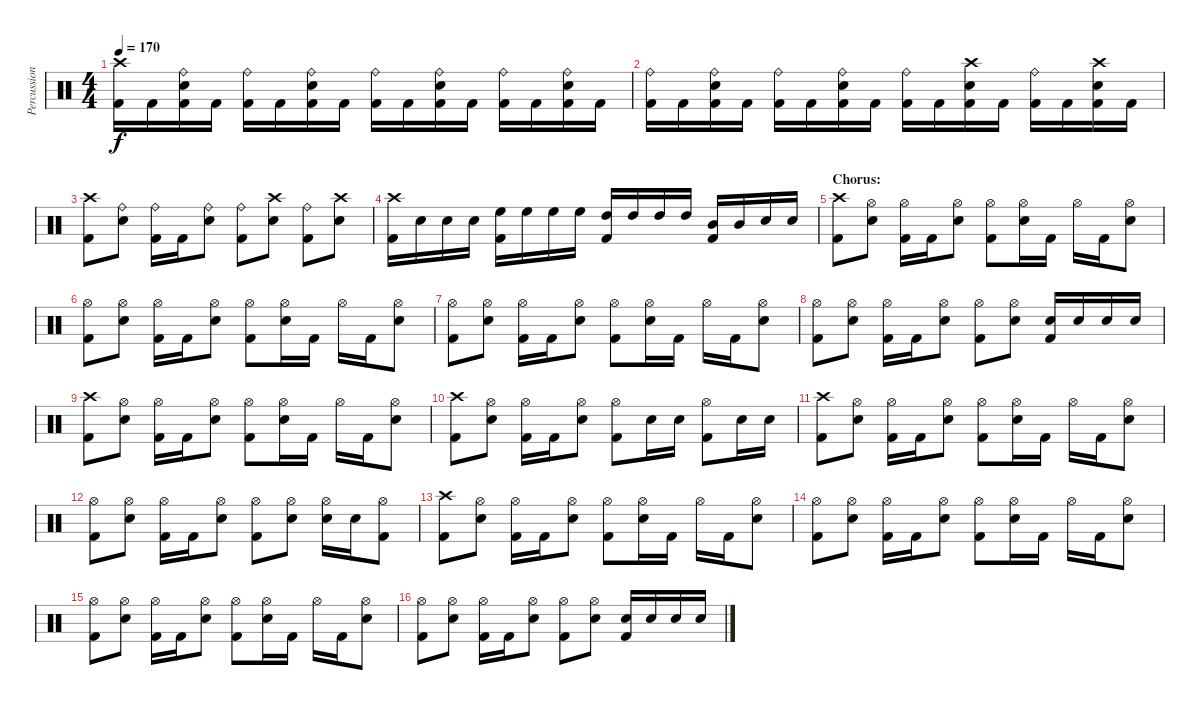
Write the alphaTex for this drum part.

\track ("Percussion" "Percussion") {instrument percussion}
\staff {score}
\articulation defaults
\ts (4 4)
\tempo 170
\clef neutral
\ks c
("Crash high (hit)" "Kick (hit) 2").16{dy f} "Kick (hit) 2".16 ("Ride (bell)" "Electric Snare (hit)" "Kick (hit) 2").16 "Kick (hit) 2".16 ("Ride (bell)" "Kick (hit) 2").16 "Kick (hit) 2".16 ("Ride (bell)" "Electric Snare (hit)" "Kick (hit) 2").16 "Kick (hit) 2".16 ("Ride (bell)" "Kick (hit) 2").16 "Kick (hit) 2".16 ("Ride (bell)" "Electric Snare (hit)" "Kick (hit) 2").16 "Kick (hit) 2".16 ("Ride (bell)" "Kick (hit) 2").16 "Kick (hit) 2".16 ("Ride (bell)" "Electric Snare (hit)" "Kick (hit) 2").16 "Kick (hit) 2".16 |
("Ride (bell)" "Kick (hit) 2").16 "Kick (hit) 2".16 ("Ride (bell)" "Electric Snare (hit)" "Kick (hit) 2").16 "Kick (hit) 2".16 ("Ride (bell)" "Kick (hit) 2").16 "Kick (hit) 2".16 ("Ride (bell)" "Electric Snare (hit)" "Kick (hit) 2").16 "Kick (hit) 2".16 ("Ride (bell)" "Kick (hit) 2").16 "Kick (hit) 2".16 ("Crash high (hit)" "Electric Snare (hit)" "Kick (hit) 2").16 "Kick (hit) 2".16 ("Ride (bell)" "Kick (hit) 2").16 "Kick (hit) 2".16 ("Crash high (hit)" "Electric Snare (hit)" "Kick (hit) 2").16 "Kick (hit) 2".16 |
("Crash high (hit)" "Kick (hit) 2").8 ("Ride (bell)" "Electric Snare (hit)").8 ("Ride (bell)" "Kick (hit) 2").16 "Kick (hit) 2".16 ("Ride (bell)" "Electric Snare (hit)").8 ("Ride (bell)" "Kick (hit) 2").8 ("Crash high (hit)" "Electric Snare (hit)").8 ("Ride (bell)" "Kick (hit) 2").8 ("Crash high (hit)" "Electric Snare (hit)").8 |
("Crash high (hit)" "Kick (hit) 2").16 "Electric Snare (hit)".16 "Electric Snare (hit)".16 "Electric Snare (hit)".16 ("High Floor Tom (hit)" "Kick (hit) 2").16 "High Floor Tom (hit)".16 "High Floor Tom (hit)".16 "High Floor Tom (hit)".16 ("High Tom (hit)" "Kick (hit) 2").16 "High Tom (hit)".16 "High Tom (hit)".16 "High Tom (hit)".16 ("Mid Tom (hit)" "Kick (hit) 2").16 "Mid Tom (hit)".16 "Electric Snare (hit)".16 "Electric Snare (hit)".16 |
\section ("" "Chorus:")
("Crash high (hit)" "Kick (hit) 2").8 ("Hi-Hat (open)" "Electric Snare (hit)").8 ("Hi-Hat (open)" "Kick (hit) 2").16 "Kick (hit) 2".16 ("Hi-Hat (open)" "Electric Snare (hit)").8 ("Hi-Hat (open)" "Kick (hit) 2").8 ("Hi-Hat (open)" "Electric Snare (hit)").16 "Kick (hit) 2".16 "Hi-Hat (open)".16 "Kick (hit) 2".16 ("Hi-Hat (open)" "Electric Snare (hit)").8 |
("Hi-Hat (open)" "Kick (hit) 2").8 ("Hi-Hat (open)" "Electric Snare (hit)").8 ("Hi-Hat (open)" "Kick (hit) 2").16 "Kick (hit) 2".16 ("Hi-Hat (open)" "Electric Snare (hit)").8 ("Hi-Hat (open)" "Kick (hit) 2").8 ("Hi-Hat (open)" "Electric Snare (hit)").16 "Kick (hit) 2".16 "Hi-Hat (open)".16 "Kick (hit) 2".16 ("Hi-Hat (open)" "Electric Snare (hit)").8 |
("Hi-Hat (open)" "Kick (hit) 2").8 ("Hi-Hat (open)" "Electric Snare (hit)").8 ("Hi-Hat (open)" "Kick (hit) 2").16 "Kick (hit) 2".16 ("Hi-Hat (open)" "Electric Snare (hit)").8 ("Hi-Hat (open)" "Kick (hit) 2").8 ("Hi-Hat (open)" "Electric Snare (hit)").16 "Kick (hit) 2".16 "Hi-Hat (open)".16 "Kick (hit) 2".16 ("Hi-Hat (open)" "Electric Snare (hit)").8 |
("Hi-Hat (open)" "Kick (hit) 2").8 ("Hi-Hat (open)" "Electric Snare (hit)").8 ("Hi-Hat (open)" "Kick (hit) 2").16 "Kick (hit) 2".16 ("Hi-Hat (open)" "Electric Snare (hit)").8 ("Hi-Hat (open)" "Kick (hit) 2").8 ("Hi-Hat (open)" "Electric Snare (hit)").8 ("Electric Snare (hit)" "Kick (hit) 2").16 "Electric Snare (hit)".16 "Electric Snare (hit)".16 "Electric Snare (hit)".16 |
("Crash high (hit)" "Kick (hit) 2").8 ("Hi-Hat (open)" "Electric Snare (hit)").8 ("Hi-Hat (open)" "Kick (hit) 2").16 "Kick (hit) 2".16 ("Hi-Hat (open)" "Electric Snare (hit)").8 ("Hi-Hat (open)" "Kick (hit) 2").8 ("Hi-Hat (open)" "Electric Snare (hit)").16 "Kick (hit) 2".16 "Hi-Hat (open)".16 "Kick (hit) 2".16 ("Hi-Hat (open)" "Electric Snare (hit)").8 |
("Crash high (hit)" "Kick (hit) 2").8 ("Hi-Hat (open)" "Electric Snare (hit)").8 ("Hi-Hat (open)" "Kick (hit) 2").16 "Kick (hit) 2".16 ("Hi-Hat (open)" "Electric Snare (hit)").8 ("Hi-Hat (open)" "Kick (hit) 2").8 "Electric Snare (hit)".16 "Electric Snare (hit)".16 ("Hi-Hat (open)" "Kick (hit) 2").8 "Electric Snare (hit)".16 "Electric Snare (hit)".16 |
("Crash high (hit)" "Kick (hit) 2").8 ("Hi-Hat (open)" "Electric Snare (hit)").8 ("Hi-Hat (open)" "Kick (hit) 2").16 "Kick (hit) 2".16 ("Hi-Hat (open)" "Electric Snare (hit)").8 ("Hi-Hat (open)" "Kick (hit) 2").8 ("Hi-Hat (open)" "Electric Snare (hit)").16 "Kick (hit) 2".16 "Hi-Hat (open)".16 "Kick (hit) 2".16 ("Hi-Hat (open)" "Electric Snare (hit)").8 |
("Hi-Hat (open)" "Kick (hit) 2").8 ("Hi-Hat (open)" "Electric Snare (hit)").8 ("Hi-Hat (open)" "Kick (hit) 2").16 "Kick (hit) 2".16 ("Hi-Hat (open)" "Electric Snare (hit)").8 ("Hi-Hat (open)" "Kick (hit) 2").8 ("Hi-Hat (open)" "Electric Snare (hit)").8 ("Hi-Hat (open)" "Electric Snare (hit)").16 "Electric Snare (hit)".16 ("Hi-Hat (open)" "Kick (hit) 2").8 |
("Crash high (hit)" "Kick (hit) 2").8 ("Hi-Hat (open)" "Electric Snare (hit)").8 ("Hi-Hat (open)" "Kick (hit) 2").16 "Kick (hit) 2".16 ("Hi-Hat (open)" "Electric Snare (hit)").8 ("Hi-Hat (open)" "Kick (hit) 2").8 ("Hi-Hat (open)" "Electric Snare (hit)").16 "Kick (hit) 2".16 "Hi-Hat (open)".16 "Kick (hit) 2".16 ("Hi-Hat (open)" "Electric Snare (hit)").8 |
("Hi-Hat (open)" "Kick (hit) 2").8 ("Hi-Hat (open)" "Electric Snare (hit)").8 ("Hi-Hat (open)" "Kick (hit) 2").16 "Kick (hit) 2".16 ("Hi-Hat (open)" "Electric Snare (hit)").8 ("Hi-Hat (open)" "Kick (hit) 2").8 ("Hi-Hat (open)" "Electric Snare (hit)").16 "Kick (hit) 2".16 "Hi-Hat (open)".16 "Kick (hit) 2".16 ("Hi-Hat (open)" "Electric Snare (hit)").8 |
("Hi-Hat (open)" "Kick (hit) 2").8 ("Hi-Hat (open)" "Electric Snare (hit)").8 ("Hi-Hat (open)" "Kick (hit) 2").16 "Kick (hit) 2".16 ("Hi-Hat (open)" "Electric Snare (hit)").8 ("Hi-Hat (open)" "Kick (hit) 2").8 ("Hi-Hat (open)" "Electric Snare (hit)").16 "Kick (hit) 2".16 "Hi-Hat (open)".16 "Kick (hit) 2".16 ("Hi-Hat (open)" "Electric Snare (hit)").8 |
("Hi-Hat (open)" "Kick (hit) 2").8 ("Hi-Hat (open)" "Electric Snare (hit)").8 ("Hi-Hat (open)" "Kick (hit) 2").16 "Kick (hit) 2".16 ("Hi-Hat (open)" "Electric Snare (hit)").8 ("Hi-Hat (open)" "Kick (hit) 2").8 ("Hi-Hat (open)" "Electric Snare (hit)").8 ("Electric Snare (hit)" "Kick (hit) 2").16 "Electric Snare (hit)".16 "Electric Snare (hit)".16 "Electric Snare (hit)".16
